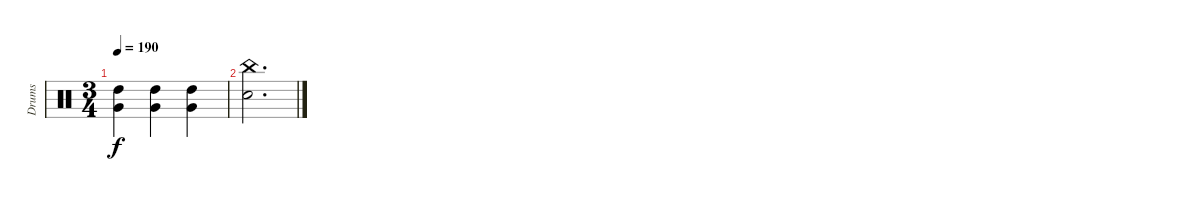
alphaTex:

\track ("Drums" "Drums") {instrument percussion}
\staff {score}
\articulation defaults
\ts (3 4)
\tempo 190
\clef neutral
\ks c
("High Tom (hit)" "Very Low Tom (hit)").4{dy f} ("High Tom (hit)" "Very Low Tom (hit)").4 ("High Tom (hit)" "Very Low Tom (hit)").4 |
("China (hit)" "Snare (hit) 2").2{d}
